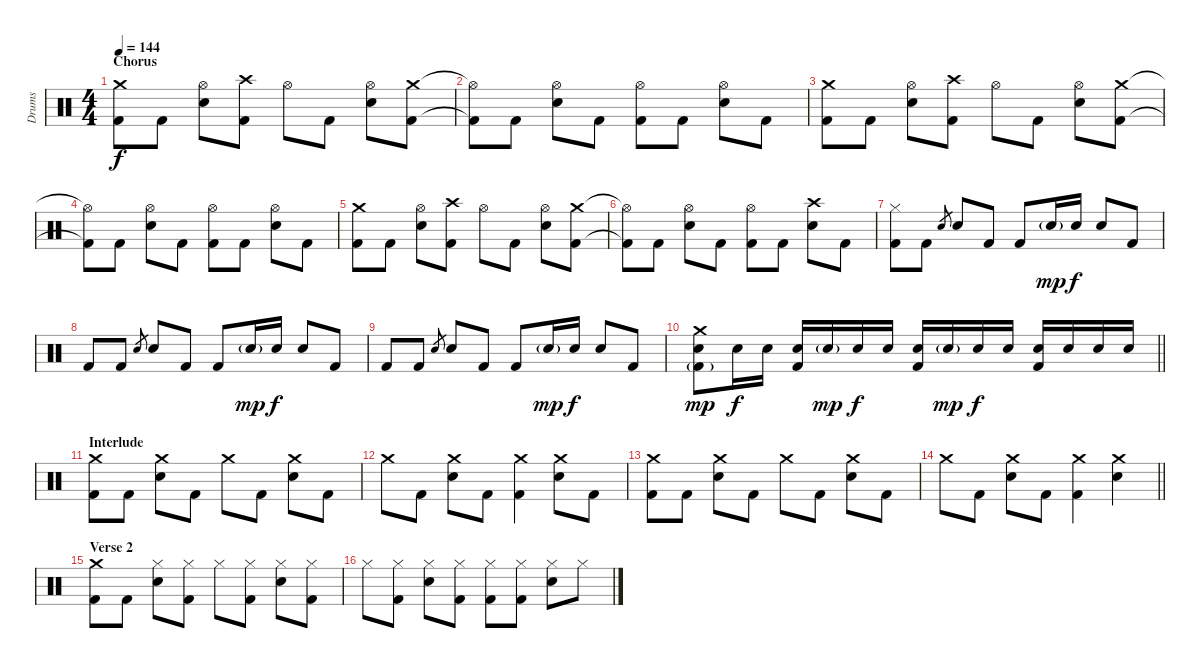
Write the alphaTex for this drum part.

\track ("Drums" "Drums") {instrument percussion}
\staff {score}
\articulation defaults
\ts (4 4)
\section ("" "Chorus")
\tempo 144
\clef neutral
\ks c
("Crash medium (hit)" "Kick (hit) 2").8{dy f} "Kick (hit) 2".8 ("Hi-Hat (open)" "Electric Snare (hit)").8 ("Crash high (hit)" "Kick (hit) 2").8 "Hi-Hat (open)".8 "Kick (hit) 2".8 ("Hi-Hat (open)" "Electric Snare (hit)").8 ("Crash medium (hit)" "Kick (hit) 2").8 |
("Hi-Hat (open)"{t} "Kick (hit) 2"{t}).8 "Kick (hit) 2".8 ("Hi-Hat (open)" "Electric Snare (hit)").8 "Kick (hit) 2".8 ("Hi-Hat (open)" "Kick (hit) 2").8 "Kick (hit) 2".8 ("Hi-Hat (open)" "Electric Snare (hit)").8 "Kick (hit) 2".8 |
("Crash medium (hit)" "Kick (hit) 2").8 "Kick (hit) 2".8 ("Hi-Hat (open)" "Electric Snare (hit)").8 ("Crash high (hit)" "Kick (hit) 2").8 "Hi-Hat (open)".8 "Kick (hit) 2".8 ("Hi-Hat (open)" "Electric Snare (hit)").8 ("Crash medium (hit)" "Kick (hit) 2").8 |
("Hi-Hat (open)"{t} "Kick (hit) 2"{t}).8 "Kick (hit) 2".8 ("Hi-Hat (open)" "Electric Snare (hit)").8 "Kick (hit) 2".8 ("Hi-Hat (open)" "Kick (hit) 2").8 "Kick (hit) 2".8 ("Hi-Hat (open)" "Electric Snare (hit)").8 "Kick (hit) 2".8 |
("Crash medium (hit)" "Kick (hit) 2").8 "Kick (hit) 2".8 ("Hi-Hat (open)" "Electric Snare (hit)").8 ("Crash high (hit)" "Kick (hit) 2").8 "Hi-Hat (open)".8 "Kick (hit) 2".8 ("Hi-Hat (open)" "Electric Snare (hit)").8 ("Crash medium (hit)" "Kick (hit) 2").8 |
("Hi-Hat (open)"{t} "Kick (hit) 2"{t}).8 "Kick (hit) 2".8 ("Hi-Hat (open)" "Electric Snare (hit)").8 "Kick (hit) 2".8 ("Hi-Hat (open)" "Kick (hit) 2").8 "Kick (hit) 2".8 ("Crash high (hit)" "Electric Snare (hit)").8 "Kick (hit) 2".8 |
("Hi-Hat (closed)" "Kick (hit) 2").8 "Kick (hit) 2".8 "Electric Snare (hit)".8{gr} "Electric Snare (hit)".8 "Kick (hit) 2".8 "Kick (hit) 2".8 "Electric Snare (hit)"{g}.16{dy mp} "Electric Snare (hit)".16{dy f} "Electric Snare (hit)".8 "Kick (hit) 2".8 |
"Kick (hit) 2".8 "Kick (hit) 2".8 "Electric Snare (hit)".8{gr} "Electric Snare (hit)".8 "Kick (hit) 2".8 "Kick (hit) 2".8 "Electric Snare (hit)"{g}.16{dy mp} "Electric Snare (hit)".16{dy f} "Electric Snare (hit)".8 "Kick (hit) 2".8 |
"Kick (hit) 2".8 "Kick (hit) 2".8 "Electric Snare (hit)".8{gr} "Electric Snare (hit)".8 "Kick (hit) 2".8 "Kick (hit) 2".8 "Electric Snare (hit)"{g}.16{dy mp} "Electric Snare (hit)".16{dy f} "Electric Snare (hit)".8 "Kick (hit) 2".8 |
\barLineRight lightlight
("Crash medium (hit)" "Electric Snare (hit)" "Kick (hit) 2"{g}).8{dy mp} "Electric Snare (hit)".16{dy f} "Electric Snare (hit)".16 ("Electric Snare (hit)" "Kick (hit) 2").16 "Electric Snare (hit)"{g}.16{dy mp} "Electric Snare (hit)".16{dy f} "Electric Snare (hit)".16 ("Electric Snare (hit)" "Kick (hit) 2").16 "Electric Snare (hit)"{g}.16{dy mp} "Electric Snare (hit)".16{dy f} "Electric Snare (hit)".16 ("Electric Snare (hit)" "Kick (hit) 2").16 "Electric Snare (hit)".16 "Electric Snare (hit)".16 "Electric Snare (hit)".16 |
\section ("" "Interlude")
("Crash medium (hit)" "Kick (hit) 2").8 "Kick (hit) 2".8 ("Crash medium (hit)" "Electric Snare (hit)").8 "Kick (hit) 2".8 "Crash medium (hit)".8 "Kick (hit) 2".8 ("Crash medium (hit)" "Electric Snare (hit)").8 "Kick (hit) 2".8 |
"Crash medium (hit)".8 "Kick (hit) 2".8 ("Crash medium (hit)" "Electric Snare (hit)").8 "Kick (hit) 2".8 ("Crash medium (hit)" "Kick (hit) 2").4 ("Crash medium (hit)" "Electric Snare (hit)").8 "Kick (hit) 2".8 |
("Crash medium (hit)" "Kick (hit) 2").8 "Kick (hit) 2".8 ("Crash medium (hit)" "Electric Snare (hit)").8 "Kick (hit) 2".8 "Crash medium (hit)".8 "Kick (hit) 2".8 ("Crash medium (hit)" "Electric Snare (hit)").8 "Kick (hit) 2".8 |
\barLineRight lightlight "Crash medium (hit)".8 "Kick (hit) 2".8
("Crash medium (hit)" "Electric Snare (hit)").8 "Kick (hit) 2".8 ("Crash medium (hit)" "Kick (hit) 2").4 ("Crash medium (hit)" "Electric Snare (hit)").4 |
\section ("" "Verse 2")
("Crash medium (hit)" "Kick (hit) 2").8 "Kick (hit) 2".8 ("Hi-Hat (closed)" "Electric Snare (hit)").8 ("Hi-Hat (closed)" "Kick (hit) 2").8 "Hi-Hat (closed)".8 ("Hi-Hat (closed)" "Kick (hit) 2").8 ("Hi-Hat (closed)" "Electric Snare (hit)").8 ("Hi-Hat (closed)" "Kick (hit) 2").8 |
"Hi-Hat (closed)".8 ("Hi-Hat (closed)" "Kick (hit) 2").8 ("Hi-Hat (closed)" "Electric Snare (hit)").8 ("Hi-Hat (closed)" "Kick (hit) 2").8 ("Hi-Hat (closed)" "Kick (hit) 2").8 ("Hi-Hat (closed)" "Kick (hit) 2").8 ("Hi-Hat (closed)" "Electric Snare (hit)").8 "Hi-Hat (closed)".8
